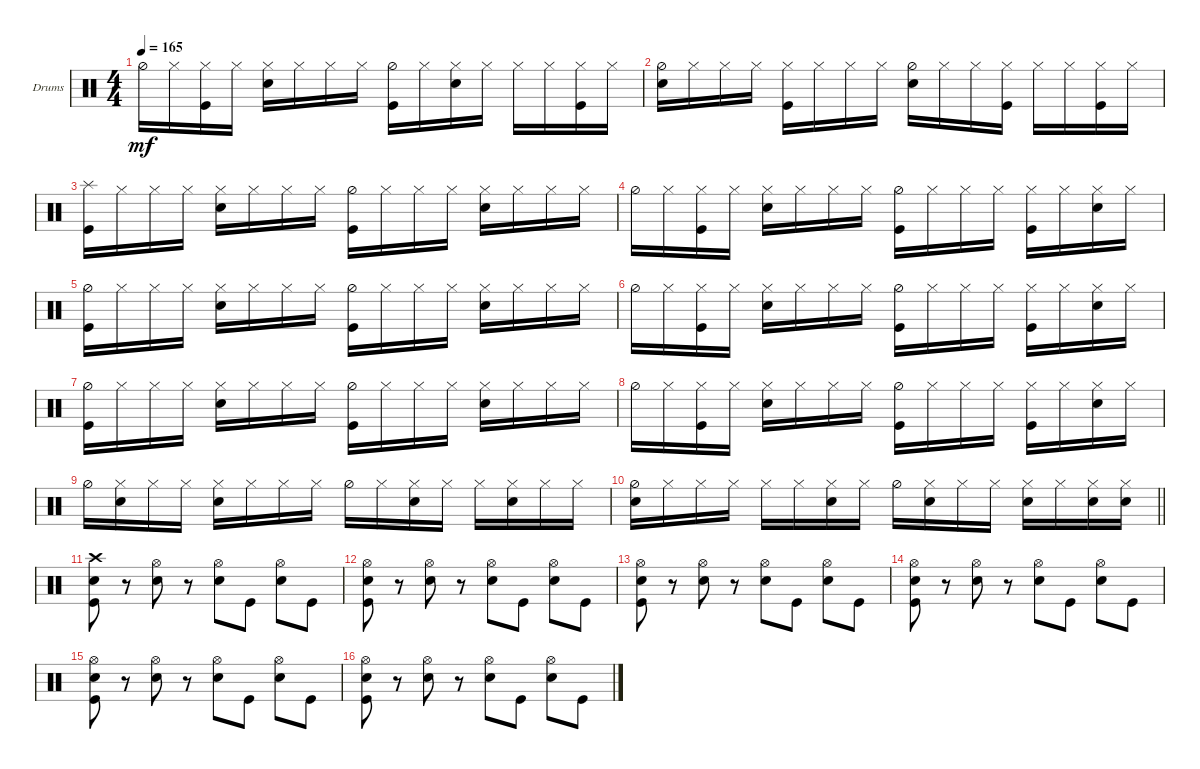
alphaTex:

\defaultSystemsLayout 4
\bracketExtendMode groupsimilarinstruments
\firstSystemTrackNameOrientation horizontal
\otherSystemsTrackNameOrientation horizontal
\track ("Drumkit" "Drums") {instrument percussion}
\staff {score}
\articulation defaults
\ts (4 4)
\tempo 165
\clef neutral
\ks c "Hi-Hat (half)".16{dy mf} "Hi-Hat (closed)".16
("Hi-Hat (closed)" "Kick (hit)").16 "Hi-Hat (closed)".16 ("Hi-Hat (closed)" "Snare (hit) 2").16 "Hi-Hat (closed)".16 "Hi-Hat (closed)".16 "Hi-Hat (closed)".16 ("Hi-Hat (half)" "Kick (hit)").16 "Hi-Hat (closed)".16 ("Hi-Hat (closed)" "Snare (hit) 2").16 "Hi-Hat (closed)".16 "Hi-Hat (closed)".16 "Hi-Hat (closed)".16 ("Hi-Hat (closed)" "Kick (hit)").16 "Hi-Hat (closed)".16 |
("Hi-Hat (half)" "Snare (hit) 2").16 "Hi-Hat (closed)".16 "Hi-Hat (closed)".16 "Hi-Hat (closed)".16 ("Hi-Hat (closed)" "Kick (hit)").16 "Hi-Hat (closed)".16 "Hi-Hat (closed)".16 "Hi-Hat (closed)".16 ("Hi-Hat (half)" "Snare (hit) 2").16 "Hi-Hat (closed)".16 "Hi-Hat (closed)".16 ("Hi-Hat (closed)" "Kick (hit)").16 "Hi-Hat (closed)".16 "Hi-Hat (closed)".16 ("Hi-Hat (closed)" "Kick (hit)").16 "Hi-Hat (closed)".16 |
("Kick (hit)" "Splash (hit)").16 "Hi-Hat (closed)".16 "Hi-Hat (closed)".16 "Hi-Hat (closed)".16 ("Hi-Hat (closed)" "Snare (hit) 2").16 "Hi-Hat (closed)".16 "Hi-Hat (closed)".16 "Hi-Hat (closed)".16 ("Hi-Hat (half)" "Kick (hit)").16 "Hi-Hat (closed)".16 "Hi-Hat (closed)".16 "Hi-Hat (closed)".16 ("Hi-Hat (closed)" "Snare (hit) 2").16 "Hi-Hat (closed)".16 "Hi-Hat (closed)".16 "Hi-Hat (closed)".16 |
"Hi-Hat (half)".16 "Hi-Hat (closed)".16 ("Hi-Hat (closed)" "Kick (hit)").16 "Hi-Hat (closed)".16 ("Hi-Hat (closed)" "Snare (hit) 2").16 "Hi-Hat (closed)".16 "Hi-Hat (closed)".16 "Hi-Hat (closed)".16 ("Hi-Hat (half)" "Kick (hit)").16 "Hi-Hat (closed)".16 "Hi-Hat (closed)".16 "Hi-Hat (closed)".16 ("Hi-Hat (closed)" "Kick (hit)").16 "Hi-Hat (closed)".16 ("Hi-Hat (closed)" "Snare (hit) 2").16 "Hi-Hat (closed)".16 |
("Kick (hit)" "Hi-Hat (half)").16 "Hi-Hat (closed)".16 "Hi-Hat (closed)".16 "Hi-Hat (closed)".16 ("Hi-Hat (closed)" "Snare (hit) 2").16 "Hi-Hat (closed)".16 "Hi-Hat (closed)".16 "Hi-Hat (closed)".16 ("Hi-Hat (half)" "Kick (hit)").16 "Hi-Hat (closed)".16 "Hi-Hat (closed)".16 "Hi-Hat (closed)".16 ("Hi-Hat (closed)" "Snare (hit) 2").16 "Hi-Hat (closed)".16 "Hi-Hat (closed)".16 "Hi-Hat (closed)".16 |
"Hi-Hat (half)".16 "Hi-Hat (closed)".16 ("Hi-Hat (closed)" "Kick (hit)").16 "Hi-Hat (closed)".16 ("Hi-Hat (closed)" "Snare (hit) 2").16 "Hi-Hat (closed)".16 "Hi-Hat (closed)".16 "Hi-Hat (closed)".16 ("Hi-Hat (half)" "Kick (hit)").16 "Hi-Hat (closed)".16 "Hi-Hat (closed)".16 "Hi-Hat (closed)".16 ("Hi-Hat (closed)" "Kick (hit)").16 "Hi-Hat (closed)".16 ("Hi-Hat (closed)" "Snare (hit) 2").16 "Hi-Hat (closed)".16 |
("Kick (hit)" "Hi-Hat (half)").16 "Hi-Hat (closed)".16 "Hi-Hat (closed)".16 "Hi-Hat (closed)".16 ("Hi-Hat (closed)" "Snare (hit) 2").16 "Hi-Hat (closed)".16 "Hi-Hat (closed)".16 "Hi-Hat (closed)".16 ("Hi-Hat (half)" "Kick (hit)").16 "Hi-Hat (closed)".16 "Hi-Hat (closed)".16 "Hi-Hat (closed)".16 ("Hi-Hat (closed)" "Snare (hit) 2").16 "Hi-Hat (closed)".16 "Hi-Hat (closed)".16 "Hi-Hat (closed)".16 |
"Hi-Hat (half)".16 "Hi-Hat (closed)".16 ("Hi-Hat (closed)" "Kick (hit)").16 "Hi-Hat (closed)".16 ("Hi-Hat (closed)" "Snare (hit) 2").16 "Hi-Hat (closed)".16 "Hi-Hat (closed)".16 "Hi-Hat (closed)".16 ("Hi-Hat (half)" "Kick (hit)").16 "Hi-Hat (closed)".16 "Hi-Hat (closed)".16 "Hi-Hat (closed)".16 ("Hi-Hat (closed)" "Kick (hit)").16 "Hi-Hat (closed)".16 ("Hi-Hat (closed)" "Snare (hit) 2").16 "Hi-Hat (closed)".16 |
"Hi-Hat (half)".16 ("Hi-Hat (closed)" "Snare (hit) 2").16 "Hi-Hat (closed)".16 "Hi-Hat (closed)".16 ("Hi-Hat (closed)" "Snare (hit) 2").16 "Hi-Hat (closed)".16 "Hi-Hat (closed)".16 "Hi-Hat (closed)".16 "Hi-Hat (half)".16 "Hi-Hat (closed)".16 ("Hi-Hat (closed)" "Snare (hit) 2").16 "Hi-Hat (closed)".16 "Hi-Hat (closed)".16 ("Hi-Hat (closed)" "Snare (hit) 2").16 "Hi-Hat (closed)".16 "Hi-Hat (closed)".16 |
\barLineRight lightlight
("Hi-Hat (half)" "Snare (hit) 2").16 "Hi-Hat (closed)".16 "Hi-Hat (closed)".16 "Hi-Hat (closed)".16 "Hi-Hat (closed)".16 "Hi-Hat (closed)".16 ("Hi-Hat (closed)" "Snare (hit) 2").16 "Hi-Hat (closed)".16 "Hi-Hat (half)".16 ("Hi-Hat (closed)" "Snare (hit) 2").16 "Hi-Hat (closed)".16 "Hi-Hat (closed)".16 ("Hi-Hat (closed)" "Snare (hit) 2").16 "Hi-Hat (closed)".16 ("Hi-Hat (closed)" "Snare (hit) 2").16 ("Hi-Hat (closed)" "Snare (hit) 2").16 |
("Kick (hit)" "Snare (hit) 2" "Crash high (hit)").8 r.8 ("Snare (hit) 2" "Hi-Hat (open)").8 r.8 ("Snare (hit) 2" "Hi-Hat (open)").8 "Kick (hit)".8 ("Snare (hit) 2" "Hi-Hat (open)").8 "Kick (hit)".8 |
("Kick (hit)" "Snare (hit) 2" "Hi-Hat (open)").8 r.8 ("Snare (hit) 2" "Hi-Hat (open)").8 r.8 ("Snare (hit) 2" "Hi-Hat (open)").8 "Kick (hit)".8 ("Snare (hit) 2" "Hi-Hat (open)").8 "Kick (hit)".8 |
("Kick (hit)" "Snare (hit) 2" "Hi-Hat (open)").8 r.8 ("Snare (hit) 2" "Hi-Hat (open)").8 r.8 ("Snare (hit) 2" "Hi-Hat (open)").8 "Kick (hit)".8 ("Snare (hit) 2" "Hi-Hat (open)").8 "Kick (hit)".8 |
("Kick (hit)" "Snare (hit) 2" "Hi-Hat (open)").8 r.8 ("Snare (hit) 2" "Hi-Hat (open)").8 r.8 ("Snare (hit) 2" "Hi-Hat (open)").8 "Kick (hit)".8 ("Snare (hit) 2" "Hi-Hat (open)").8 "Kick (hit)".8 |
("Kick (hit)" "Snare (hit) 2" "Hi-Hat (open)").8 r.8 ("Snare (hit) 2" "Hi-Hat (open)").8 r.8 ("Snare (hit) 2" "Hi-Hat (open)").8 "Kick (hit)".8 ("Snare (hit) 2" "Hi-Hat (open)").8 "Kick (hit)".8 |
("Kick (hit)" "Snare (hit) 2" "Hi-Hat (open)").8 r.8 ("Snare (hit) 2" "Hi-Hat (open)").8 r.8 ("Snare (hit) 2" "Hi-Hat (open)").8 "Kick (hit)".8 ("Snare (hit) 2" "Hi-Hat (open)").8 "Kick (hit)".8
